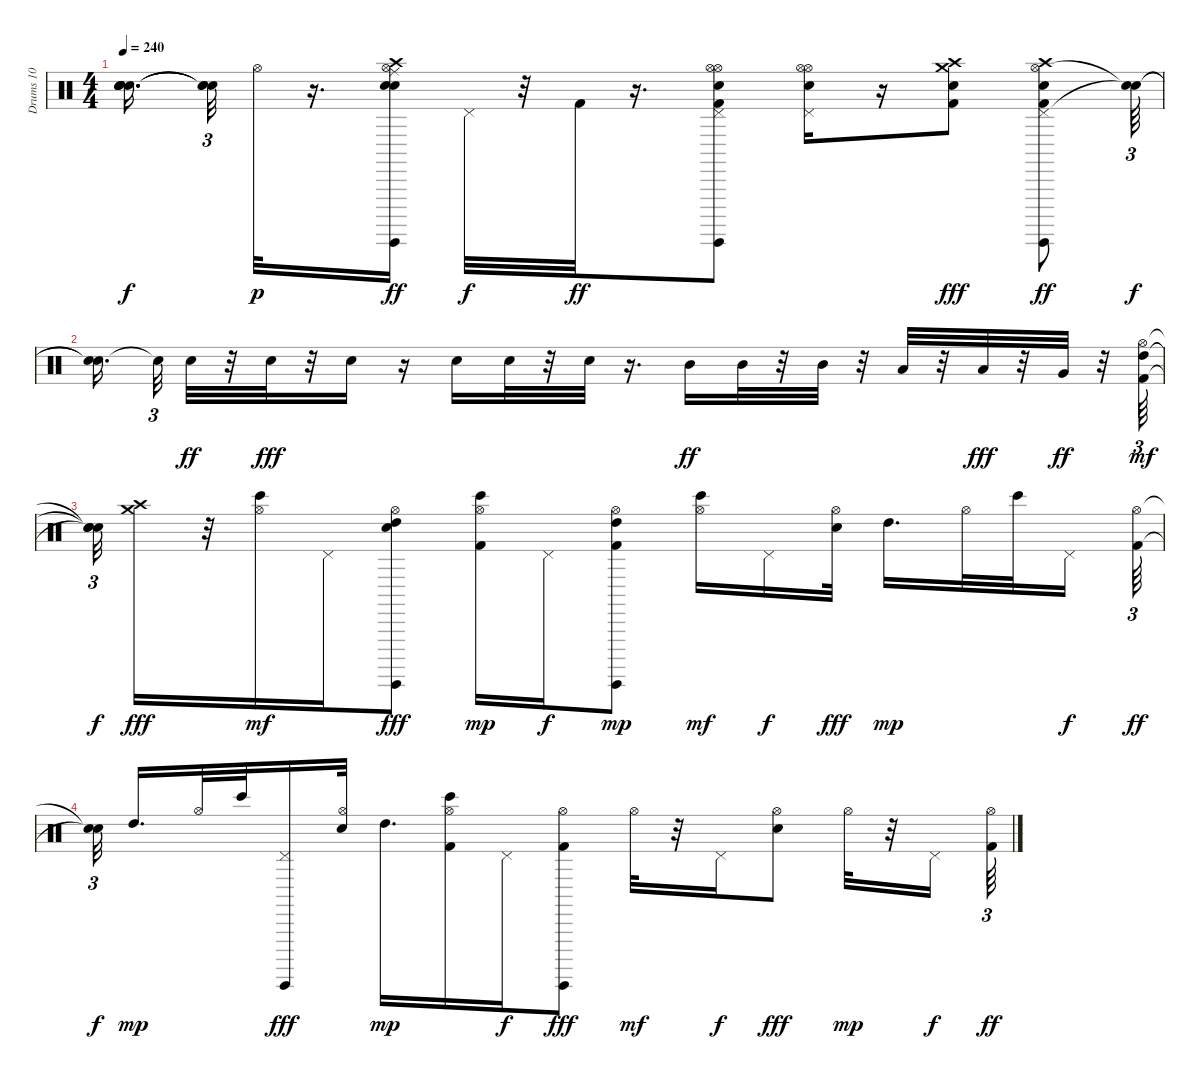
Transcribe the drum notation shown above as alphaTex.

\track ("Drums 10" "Drums 10") {instrument percussion}
\staff {score}
\articulation defaults
\ts (4 4)
\tempo 240
\clef neutral
\ks c
("Snare (hit)"{t} "Snare (hit)"{t} "Snare (hit)"{t} "Snare (hit)"{t} "Snare (hit)"{t} "Snare (hit)"{t}).16{d dy f beam splitsecondary} ("Snare (hit)"{t} "Snare (hit)"{t} "Snare (hit)"{t}).32{tu (3 2)} "Hi-Hat (open)".32{dy p} r.16{d} ("Hi-Hat (open)" "Guiro (hit)" "Snare (hit) 2" "Electric Snare (hit)" "Ride (middle)" "Crash high (hit)").16{dy ff} "Pedal Hi-Hat (hit)".32{dy f} r.32 "Kick (hit) 2".32{dy ff} r.16{d} ("Pedal Hi-Hat (hit)" "Hi-Hat (open)" "Guiro (hit)" "Kick (hit) 2" "Electric Snare (hit)" "Hi-Hat (open)").8 ("Pedal Hi-Hat (hit)" "Hi-Hat (open)" "Electric Snare (hit)" "Hi-Hat (open)").16 r.16 ("Kick (hit) 2" "Snare (hit) 2" "Crash high (hit)" "Crash medium (hit)").8{dy fff} ("Pedal Hi-Hat (hit)" "Hi-Hat (open)" "Guiro (hit)" "Kick (hit) 2" "Crash high (hit)" "Electric Snare (hit)").8{dy ff} ("Snare (hit)"{t} "Snare (hit)"{t}).64{tu (3 2) dy f} |
("Snare (hit)"{t} "Snare (hit)"{t}).16{d beam splitsecondary} "Snare (hit)"{t}.32{tu (3 2)} "Electric Snare (hit)".32{dy ff} r.32 "Electric Snare (hit)".32{dy fff} r.32 "Electric Snare (hit)".16 r.16 "Electric Snare (hit)".16 "Electric Snare (hit)".32 r.32 "Electric Snare (hit)".32 r.16{d} "Mid Tom (hit)".16{dy ff} "Mid Tom (hit)".32 r.32 "Mid Tom (hit)".32 r.32 "Low Tom (hit)".32 r.32 "Low Tom (hit)".32{dy fff} r.32 "Very Low Tom (hit)".32{dy ff} r.32 ("Hi-Hat (open)" "Kick (hit) 2" "High Tom (hit)").64{tu (3 2) dy mf} |
("Snare (hit)"{t} "Snare (hit)"{t} "Snare (hit)"{t}).32{tu (3 2) dy f} ("Crash high (hit)" "Crash medium (hit)").16{dy fff} r.32 ("Bongo High (hit)" "Hi-Hat (open)").16{dy mf} "Pedal Hi-Hat (hit)".16 ("High Tom (hit)" "Hi-Hat (open)" "Guiro (hit)" "Snare (hit) 2").8{dy fff} ("Bongo High (hit)" "Hi-Hat (open)" "Kick (hit) 2").16{dy mp} "Pedal Hi-Hat (hit)".16{dy f} ("Hi-Hat (open)" "Guiro (hit)" "Kick (hit) 2" "High Tom (hit)").8{dy mp} ("Hi-Hat (open)" "Bongo High (hit)").16{dy mf} "Pedal Hi-Hat (hit)".16{dy f} ("Hi-Hat (open)" "Snare (hit) 2").32{dy fff} "High Tom (hit)".16{d dy mp} "Hi-Hat (open)".32 "Bongo High (hit)".32 "Pedal Hi-Hat (hit)".16{dy f beam splitsecondary} ("Hi-Hat (open)" "Kick (hit) 2").64{tu (3 2) dy ff} |
("Snare (hit)"{t} "Snare (hit)"{t}).32{tu (3 2) dy f beam splitsecondary} "High Tom (hit)".16{d dy mp} "Hi-Hat (open)".32 "Bongo High (hit)".32 ("Pedal Hi-Hat (hit)" "Guiro (hit)").16{dy fff} ("Hi-Hat (open)" "Snare (hit) 2").32 "High Tom (hit)".16{d dy mp} ("Hi-Hat (open)" "Kick (hit) 2" "Bongo High (hit)").16 "Pedal Hi-Hat (hit)".16{dy f} ("Hi-Hat (open)" "Guiro (hit)" "Kick (hit) 2").8{dy fff} "Hi-Hat (open)".32{dy mf} r.32 "Pedal Hi-Hat (hit)".16{dy f} ("Hi-Hat (open)" "Snare (hit) 2").8{dy fff} "Hi-Hat (open)".32{dy mp} r.32 "Pedal Hi-Hat (hit)".16{dy f} ("Hi-Hat (open)" "Kick (hit) 2").64{tu (3 2) dy ff}
